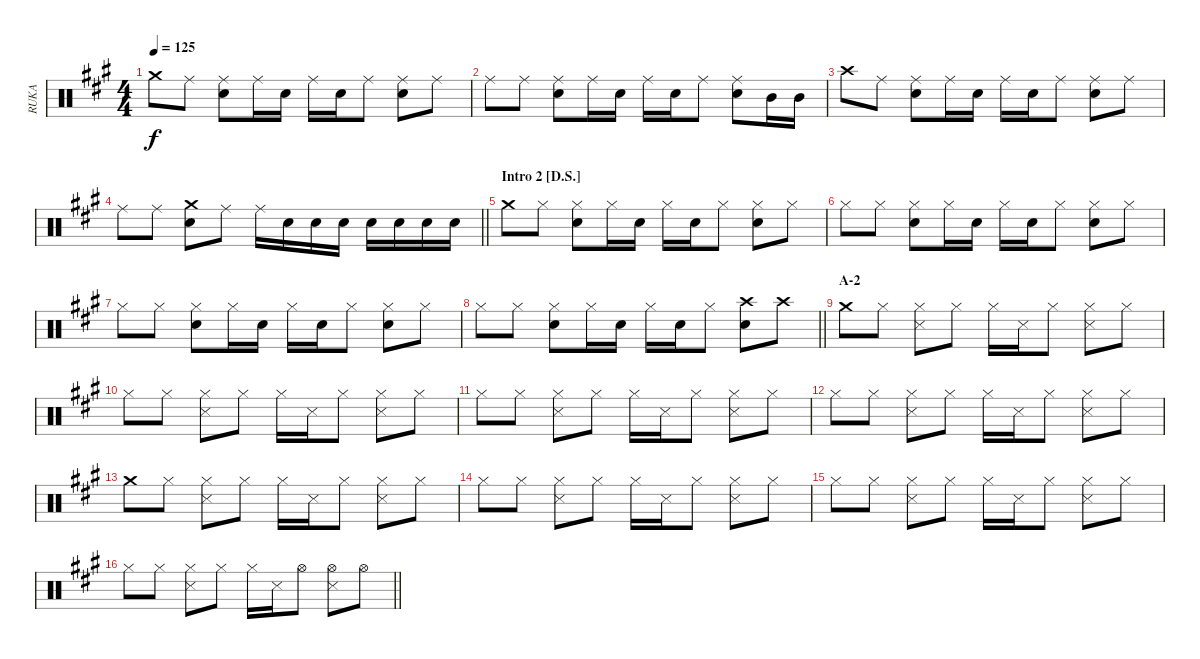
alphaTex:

\track ("RUKA" "RUKA") {instrument percussion}
\staff {score}
\articulation defaults
\ts (4 4)
\tempo 125
\clef neutral
\ks a "Crash medium (hit)".8{dy f} "Ride (middle)".8
("Ride (middle)" "Snare (hit) 2").8 "Ride (middle)".16 "Snare (hit) 2".16 "Ride (middle)".16 "Snare (hit) 2".16 "Ride (middle)".8 ("Ride (middle)" "Snare (hit) 2").8 "Ride (middle)".8 |
"Ride (middle)".8 "Ride (middle)".8 ("Ride (middle)" "Snare (hit) 2").8 "Ride (middle)".16 "Snare (hit) 2".16 "Ride (middle)".16 "Snare (hit) 2".16 "Ride (middle)".8 ("Ride (middle)" "Snare (hit) 2").8 "Mid Tom (hit)".16 "Mid Tom (hit)".16 |
"Crash high (hit)".8 "Ride (middle)".8 ("Ride (middle)" "Snare (hit) 2").8 "Ride (middle)".16 "Snare (hit) 2".16 "Ride (middle)".16 "Snare (hit) 2".16 "Ride (middle)".8 ("Ride (middle)" "Snare (hit) 2").8 "Ride (middle)".8 |
\barLineRight lightlight "Ride (middle)".8 "Ride (middle)".8
("Crash medium (hit)" "Snare (hit) 2").8 "Ride (middle)".8 "Ride (middle)".16 "Snare (hit) 2".16 "Snare (hit) 2".16 "Snare (hit) 2".16 "Snare (hit) 2".16 "Snare (hit) 2".16 "Snare (hit) 2".16 "Snare (hit) 2".16 |
\section ("" "Intro 2 [D.S.]")
"Crash medium (hit)".8 "Hi-Hat (closed)".8 ("Hi-Hat (closed)" "Snare (hit) 2").8 "Hi-Hat (closed)".16 "Snare (hit) 2".16 "Hi-Hat (closed)".16 "Snare (hit) 2".16 "Hi-Hat (closed)".8 ("Hi-Hat (closed)" "Snare (hit) 2").8 "Hi-Hat (closed)".8 |
"Hi-Hat (closed)".8 "Hi-Hat (closed)".8 ("Hi-Hat (closed)" "Snare (hit) 2").8 "Hi-Hat (closed)".16 "Snare (hit) 2".16 "Hi-Hat (closed)".16 "Snare (hit) 2".16 "Hi-Hat (closed)".8 ("Hi-Hat (closed)" "Snare (hit) 2").8 "Hi-Hat (closed)".8 |
"Hi-Hat (closed)".8 "Hi-Hat (closed)".8 ("Hi-Hat (closed)" "Snare (hit) 2").8 "Hi-Hat (closed)".16 "Snare (hit) 2".16 "Hi-Hat (closed)".16 "Snare (hit) 2".16 "Hi-Hat (closed)".8 ("Hi-Hat (closed)" "Snare (hit) 2").8 "Hi-Hat (closed)".8 |
\barLineRight lightlight "Hi-Hat (closed)".8 "Hi-Hat (closed)".8
("Hi-Hat (closed)" "Snare (hit) 2").8 "Hi-Hat (closed)".16 "Snare (hit) 2".16 "Hi-Hat (closed)".16 "Snare (hit) 2".16 "Hi-Hat (closed)".8 ("Crash high (hit)" "Snare (hit) 2").8 "Crash high (hit)".8 |
\section ("" "A-2")
"Crash medium (hit)".8 "Hi-Hat (closed)".8 ("Hi-Hat (closed)" "Snare (side stick) 3").8 "Hi-Hat (closed)".8 "Hi-Hat (closed)".16 "Snare (side stick) 3".16 "Hi-Hat (closed)".8 ("Hi-Hat (closed)" "Snare (side stick) 3").8 "Hi-Hat (closed)".8 |
"Hi-Hat (closed)".8 "Hi-Hat (closed)".8 ("Hi-Hat (closed)" "Snare (side stick) 3").8 "Hi-Hat (closed)".8 "Hi-Hat (closed)".16 "Snare (side stick) 3".16 "Hi-Hat (closed)".8 ("Hi-Hat (closed)" "Snare (side stick) 3").8 "Hi-Hat (closed)".8 |
"Hi-Hat (closed)".8 "Hi-Hat (closed)".8 ("Hi-Hat (closed)" "Snare (side stick) 3").8 "Hi-Hat (closed)".8 "Hi-Hat (closed)".16 "Snare (side stick) 3".16 "Hi-Hat (closed)".8 ("Hi-Hat (closed)" "Snare (side stick) 3").8 "Hi-Hat (closed)".8 |
"Hi-Hat (closed)".8 "Hi-Hat (closed)".8 ("Hi-Hat (closed)" "Snare (side stick) 3").8 "Hi-Hat (closed)".8 "Hi-Hat (closed)".16 "Snare (side stick) 3".16 "Hi-Hat (closed)".8 ("Hi-Hat (closed)" "Snare (side stick) 3").8 "Hi-Hat (closed)".8 |
"Crash medium (hit)".8 "Hi-Hat (closed)".8 ("Hi-Hat (closed)" "Snare (side stick) 3").8 "Hi-Hat (closed)".8 "Hi-Hat (closed)".16 "Snare (side stick) 3".16 "Hi-Hat (closed)".8 ("Hi-Hat (closed)" "Snare (side stick) 3").8 "Hi-Hat (closed)".8 |
"Hi-Hat (closed)".8 "Hi-Hat (closed)".8 ("Hi-Hat (closed)" "Snare (side stick) 3").8 "Hi-Hat (closed)".8 "Hi-Hat (closed)".16 "Snare (side stick) 3".16 "Hi-Hat (closed)".8 ("Hi-Hat (closed)" "Snare (side stick) 3").8 "Hi-Hat (closed)".8 |
"Hi-Hat (closed)".8 "Hi-Hat (closed)".8 ("Hi-Hat (closed)" "Snare (side stick) 3").8 "Hi-Hat (closed)".8 "Hi-Hat (closed)".16 "Snare (side stick) 3".16 "Hi-Hat (closed)".8 ("Hi-Hat (closed)" "Snare (side stick) 3").8 "Hi-Hat (closed)".8 |
\barLineRight lightlight "Hi-Hat (closed)".8 "Hi-Hat (closed)".8
("Hi-Hat (closed)" "Snare (side stick) 3").8 "Hi-Hat (closed)".8 "Hi-Hat (closed)".16 "Snare (side stick) 3".16 "Hi-Hat (open)".8 ("Hi-Hat (open)" "Snare (side stick) 3").8 "Hi-Hat (open)".8
